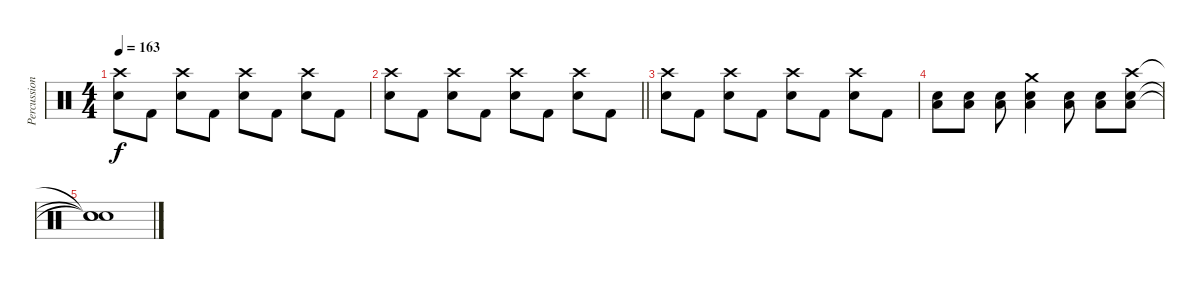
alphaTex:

\track ("Percussion" "Percussion") {instrument percussion}
\staff {score}
\articulation defaults
\ts (4 4)
\tempo 163
\clef neutral
\ks c
("Crash high (hit)" "Electric Snare (hit)").8{dy f} "Kick (hit) 2".8 ("Crash high (hit)" "Electric Snare (hit)").8 "Kick (hit) 2".8 ("Crash high (hit)" "Electric Snare (hit)").8 "Kick (hit) 2".8 ("Crash high (hit)" "Electric Snare (hit)").8 "Kick (hit) 2".8 |
\barLineRight lightlight
("Crash high (hit)" "Electric Snare (hit)").8 "Kick (hit) 2".8 ("Crash high (hit)" "Electric Snare (hit)").8 "Kick (hit) 2".8 ("Crash high (hit)" "Electric Snare (hit)").8 "Kick (hit) 2".8 ("Crash high (hit)" "Electric Snare (hit)").8 "Kick (hit) 2".8 |
("Crash high (hit)" "Electric Snare (hit)").8 "Kick (hit) 2".8 ("Crash high (hit)" "Electric Snare (hit)").8 "Kick (hit) 2".8 ("Crash high (hit)" "Electric Snare (hit)").8 "Kick (hit) 2".8 ("Crash high (hit)" "Electric Snare (hit)").8 "Kick (hit) 2".8 |
("Electric Snare (hit)" "Low Floor Tom (hit)").8 ("Electric Snare (hit)" "Low Floor Tom (hit)").8 ("Electric Snare (hit)" "Low Floor Tom (hit)").8 ("Crash medium (hit)" "Electric Snare (hit)" "Low Floor Tom (hit)").4 ("Electric Snare (hit)" "Low Floor Tom (hit)").8 ("Electric Snare (hit)" "Low Floor Tom (hit)").8 ("Crash high (hit)" "Electric Snare (hit)" "Low Floor Tom (hit)").8 |
("Snare (hit)"{t} "Snare (hit)"{t} "Snare (hit)"{t}).1
